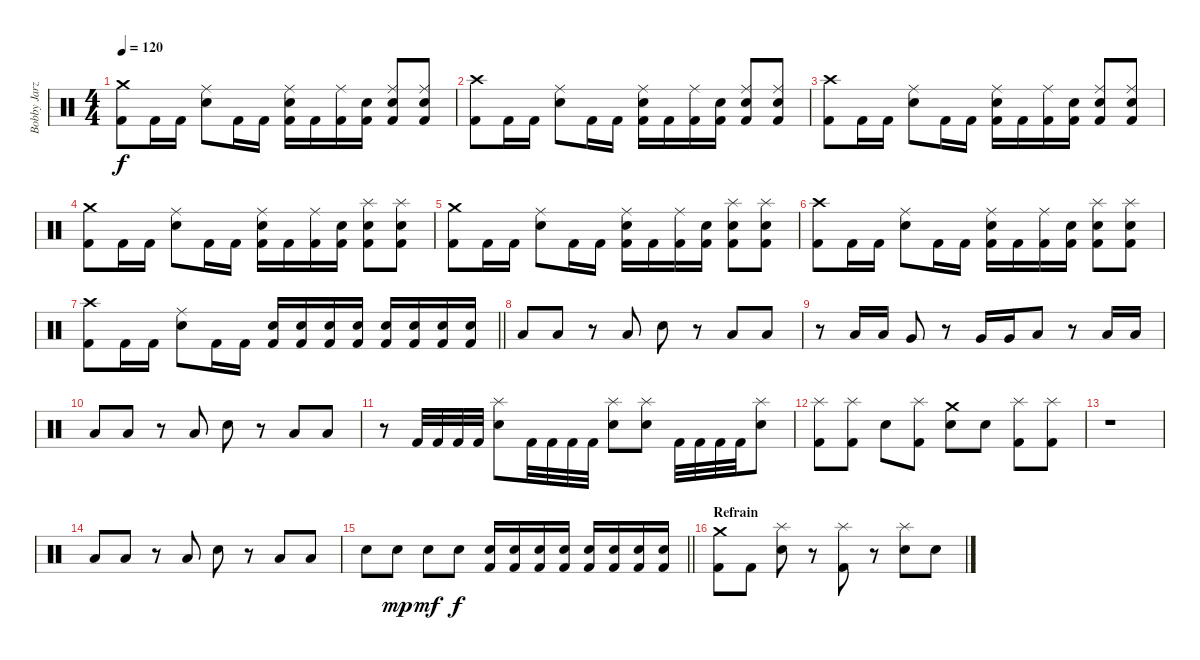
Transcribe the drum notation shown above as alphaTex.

\track ("Bobby Jarzombek - Drums" "Bobby Jarz") {instrument percussion}
\staff {score}
\articulation defaults
\ts (4 4)
\tempo 120
\clef neutral
\ks c
("Crash medium (hit)" "Kick (hit) 2").8{dy f} "Kick (hit) 2".16 "Kick (hit) 2".16 ("Ride (middle)" "Electric Snare (hit)").8 "Kick (hit) 2".16 "Kick (hit) 2".16 ("Ride (middle)" "Electric Snare (hit)" "Kick (hit) 2").16 "Kick (hit) 2".16 ("Ride (middle)" "Kick (hit) 2").16 ("Snare (hit)" "Kick (hit) 2").16 ("Ride (middle)" "Electric Snare (hit)" "Kick (hit) 2").8 ("Ride (middle)" "Electric Snare (hit)" "Kick (hit) 2").8 |
("Crash high (hit)" "Kick (hit) 2").8 "Kick (hit) 2".16 "Kick (hit) 2".16 ("Ride (middle)" "Electric Snare (hit)").8 "Kick (hit) 2".16 "Kick (hit) 2".16 ("Ride (middle)" "Electric Snare (hit)" "Kick (hit) 2").16 "Kick (hit) 2".16 ("Ride (middle)" "Kick (hit) 2").16 ("Snare (hit)" "Kick (hit) 2").16 ("Ride (middle)" "Electric Snare (hit)" "Kick (hit) 2").8 ("Ride (middle)" "Electric Snare (hit)" "Kick (hit) 2").8 |
("Crash high (hit)" "Kick (hit) 2").8 "Kick (hit) 2".16 "Kick (hit) 2".16 ("Ride (middle)" "Electric Snare (hit)").8 "Kick (hit) 2".16 "Kick (hit) 2".16 ("Ride (middle)" "Electric Snare (hit)" "Kick (hit) 2").16 "Kick (hit) 2".16 ("Ride (middle)" "Kick (hit) 2").16 ("Snare (hit)" "Kick (hit) 2").16 ("Ride (middle)" "Electric Snare (hit)" "Kick (hit) 2").8 ("Ride (middle)" "Electric Snare (hit)" "Kick (hit) 2").8 |
("Crash medium (hit)" "Kick (hit) 2").8 "Kick (hit) 2".16 "Kick (hit) 2".16 ("Ride (middle)" "Electric Snare (hit)").8 "Kick (hit) 2".16 "Kick (hit) 2".16 ("Ride (middle)" "Electric Snare (hit)" "Kick (hit) 2").16 "Kick (hit) 2".16 ("Ride (middle)" "Kick (hit) 2").16 ("Snare (hit)" "Kick (hit) 2").16 ("Splash (hit)" "Electric Snare (hit)" "Kick (hit) 2").8 ("Splash (hit)" "Electric Snare (hit)" "Kick (hit) 2").8 |
("Crash medium (hit)" "Kick (hit) 2").8 "Kick (hit) 2".16 "Kick (hit) 2".16 ("Ride (middle)" "Electric Snare (hit)").8 "Kick (hit) 2".16 "Kick (hit) 2".16 ("Ride (middle)" "Electric Snare (hit)" "Kick (hit) 2").16 "Kick (hit) 2".16 ("Ride (middle)" "Kick (hit) 2").16 ("Snare (hit)" "Kick (hit) 2").16 ("Splash (hit)" "Electric Snare (hit)" "Kick (hit) 2").8 ("Splash (hit)" "Electric Snare (hit)" "Kick (hit) 2").8 |
("Crash high (hit)" "Kick (hit) 2").8 "Kick (hit) 2".16 "Kick (hit) 2".16 ("Ride (middle)" "Electric Snare (hit)").8 "Kick (hit) 2".16 "Kick (hit) 2".16 ("Ride (middle)" "Electric Snare (hit)" "Kick (hit) 2").16 "Kick (hit) 2".16 ("Ride (middle)" "Kick (hit) 2").16 ("Snare (hit)" "Kick (hit) 2").16 ("Splash (hit)" "Electric Snare (hit)" "Kick (hit) 2").8 ("Splash (hit)" "Electric Snare (hit)" "Kick (hit) 2").8 |
\barLineRight lightlight
("Crash high (hit)" "Kick (hit) 2").8 "Kick (hit) 2".16 "Kick (hit) 2".16 ("Ride (middle)" "Electric Snare (hit)").8 "Kick (hit) 2".16 "Kick (hit) 2".16 ("Electric Snare (hit)" "Kick (hit) 2").16 ("Electric Snare (hit)" "Kick (hit) 2").16 ("Electric Snare (hit)" "Kick (hit) 2").16 ("Electric Snare (hit)" "Kick (hit) 2").16 ("Electric Snare (hit)" "Kick (hit) 2").16 ("Electric Snare (hit)" "Kick (hit) 2").16 ("Electric Snare (hit)" "Kick (hit) 2").16 ("Electric Snare (hit)" "Kick (hit) 2").16 |
"Low Floor Tom (hit)".8 "Low Floor Tom (hit)".8 r.8 "Low Floor Tom (hit)".8 "Electric Snare (hit)".8 r.8 "Low Floor Tom (hit)".8 "Low Floor Tom (hit)".8 |
r.8 "Low Tom (hit)".16 "Low Tom (hit)".16 "Very Low Tom (hit)".8 r.8 "Very Low Tom (hit)".16 "Very Low Tom (hit)".16 "Low Floor Tom (hit)".8 r.8 "Low Floor Tom (hit)".16 "Low Floor Tom (hit)".16 |
"Low Floor Tom (hit)".8 "Low Floor Tom (hit)".8 r.8 "Low Floor Tom (hit)".8 "Electric Snare (hit)".8 r.8 "Low Floor Tom (hit)".8 "Low Floor Tom (hit)".8 |
r.8 "Kick (hit) 2".32 "Kick (hit) 2".32 "Kick (hit) 2".32 "Kick (hit) 2".32 ("Splash (hit)" "Electric Snare (hit)").8 "Kick (hit) 2".32 "Kick (hit) 2".32 "Kick (hit) 2".32 "Kick (hit) 2".32 ("Splash (hit)" "Electric Snare (hit)").8 ("Splash (hit)" "Electric Snare (hit)").8 "Kick (hit) 2".32 "Kick (hit) 2".32 "Kick (hit) 2".32 "Kick (hit) 2".32 ("Splash (hit)" "Electric Snare (hit)").8 |
("Splash (hit)" "Kick (hit) 2").8 ("Splash (hit)" "Kick (hit) 2").8 "Snare (hit)".8 ("Splash (hit)" "Kick (hit) 2").8 ("Crash medium (hit)" "Electric Snare (hit)").8 "Snare (hit)".8 ("Splash (hit)" "Kick (hit) 2").8 ("Splash (hit)" "Kick (hit) 2").8 |
r.1 |
"Low Floor Tom (hit)".8 "Low Floor Tom (hit)".8 r.8 "Low Floor Tom (hit)".8 "Electric Snare (hit)".8 r.8 "Low Floor Tom (hit)".8 "Low Floor Tom (hit)".8 |
\barLineRight lightlight "Snare (hit)".8 "Electric Snare (hit)".8{dy mp} "Electric Snare (hit)".8{dy mf} "Electric Snare (hit)".8{dy f}
("Electric Snare (hit)" "Kick (hit) 2").16 ("Electric Snare (hit)" "Kick (hit) 2").16 ("Electric Snare (hit)" "Kick (hit) 2").16 ("Electric Snare (hit)" "Kick (hit) 2").16 ("Electric Snare (hit)" "Kick (hit) 2").16 ("Electric Snare (hit)" "Kick (hit) 2").16 ("Electric Snare (hit)" "Kick (hit) 2").16 ("Electric Snare (hit)" "Kick (hit) 2").16 |
\section ("" "Refrain")
("Crash medium (hit)" "Kick (hit) 2").8 "Kick (hit) 2".8 ("Splash (hit)" "Electric Snare (hit)").8 r.8 ("Splash (hit)" "Kick (hit) 2").8 r.8 ("Splash (hit)" "Electric Snare (hit)").8 "Snare (hit)".8
